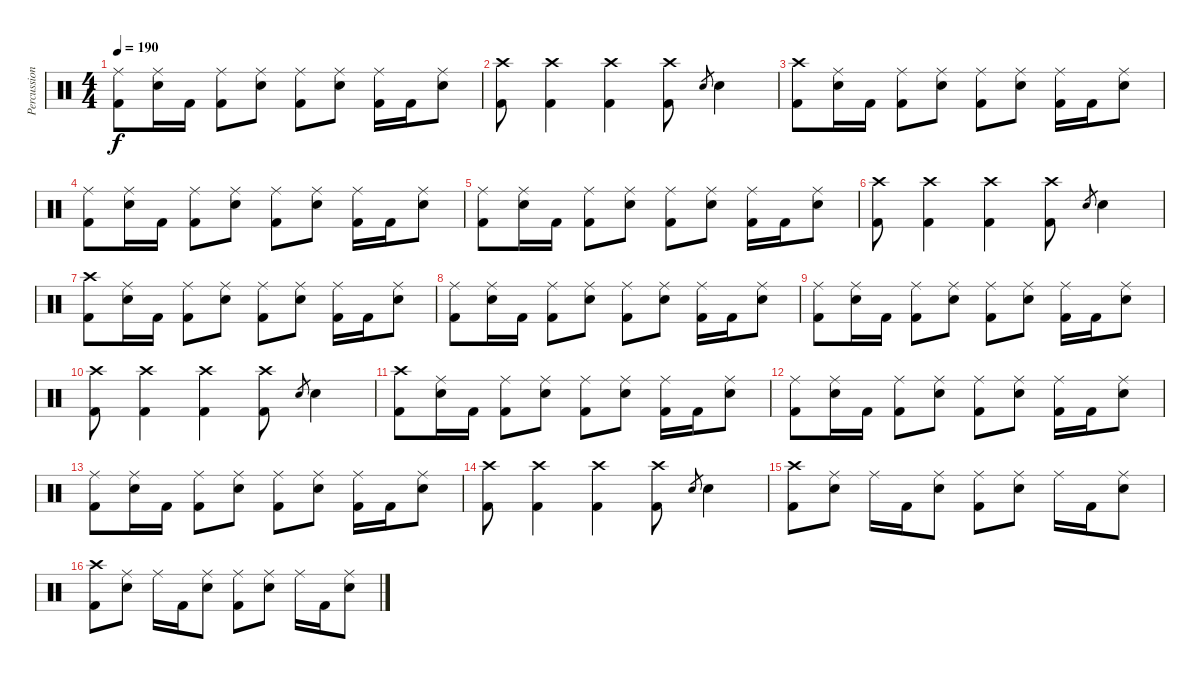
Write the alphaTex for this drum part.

\track ("Percussion" "Percussion") {instrument percussion}
\staff {score}
\articulation defaults
\ts (4 4)
\tempo 190
\clef neutral
\ks c
("Ride (middle)" "Kick (hit) 2").8{dy f} ("Ride (middle)" "Electric Snare (hit)").16 "Kick (hit) 2".16 ("Ride (middle)" "Kick (hit) 2").8 ("Ride (middle)" "Electric Snare (hit)").8 ("Ride (middle)" "Kick (hit) 2").8 ("Ride (middle)" "Electric Snare (hit)").8 ("Ride (middle)" "Kick (hit) 2").16 "Kick (hit) 2".16 ("Ride (middle)" "Electric Snare (hit)").8 |
("Crash high (hit)" "Kick (hit) 2").8 ("Crash high (hit)" "Kick (hit) 2").4 ("Crash high (hit)" "Kick (hit) 2").4 ("Crash high (hit)" "Kick (hit) 2").8 "Electric Snare (hit)".8{gr} "Electric Snare (hit)".4 |
("Crash high (hit)" "Kick (hit) 2").8 ("Ride (middle)" "Electric Snare (hit)").16 "Kick (hit) 2".16 ("Ride (middle)" "Kick (hit) 2").8 ("Ride (middle)" "Electric Snare (hit)").8 ("Ride (middle)" "Kick (hit) 2").8 ("Ride (middle)" "Electric Snare (hit)").8 ("Ride (middle)" "Kick (hit) 2").16 "Kick (hit) 2".16 ("Ride (middle)" "Electric Snare (hit)").8 |
("Ride (middle)" "Kick (hit) 2").8 ("Ride (middle)" "Electric Snare (hit)").16 "Kick (hit) 2".16 ("Ride (middle)" "Kick (hit) 2").8 ("Ride (middle)" "Electric Snare (hit)").8 ("Ride (middle)" "Kick (hit) 2").8 ("Ride (middle)" "Electric Snare (hit)").8 ("Ride (middle)" "Kick (hit) 2").16 "Kick (hit) 2".16 ("Ride (middle)" "Electric Snare (hit)").8 |
("Ride (middle)" "Kick (hit) 2").8 ("Ride (middle)" "Electric Snare (hit)").16 "Kick (hit) 2".16 ("Ride (middle)" "Kick (hit) 2").8 ("Ride (middle)" "Electric Snare (hit)").8 ("Ride (middle)" "Kick (hit) 2").8 ("Ride (middle)" "Electric Snare (hit)").8 ("Ride (middle)" "Kick (hit) 2").16 "Kick (hit) 2".16 ("Ride (middle)" "Electric Snare (hit)").8 |
("Crash high (hit)" "Kick (hit) 2").8 ("Crash high (hit)" "Kick (hit) 2").4 ("Crash high (hit)" "Kick (hit) 2").4 ("Crash high (hit)" "Kick (hit) 2").8 "Electric Snare (hit)".8{gr} "Electric Snare (hit)".4 |
("Crash high (hit)" "Kick (hit) 2").8 ("Ride (middle)" "Electric Snare (hit)").16 "Kick (hit) 2".16 ("Ride (middle)" "Kick (hit) 2").8 ("Ride (middle)" "Electric Snare (hit)").8 ("Ride (middle)" "Kick (hit) 2").8 ("Ride (middle)" "Electric Snare (hit)").8 ("Ride (middle)" "Kick (hit) 2").16 "Kick (hit) 2".16 ("Ride (middle)" "Electric Snare (hit)").8 |
("Ride (middle)" "Kick (hit) 2").8 ("Ride (middle)" "Electric Snare (hit)").16 "Kick (hit) 2".16 ("Ride (middle)" "Kick (hit) 2").8 ("Ride (middle)" "Electric Snare (hit)").8 ("Ride (middle)" "Kick (hit) 2").8 ("Ride (middle)" "Electric Snare (hit)").8 ("Ride (middle)" "Kick (hit) 2").16 "Kick (hit) 2".16 ("Ride (middle)" "Electric Snare (hit)").8 |
("Ride (middle)" "Kick (hit) 2").8 ("Ride (middle)" "Electric Snare (hit)").16 "Kick (hit) 2".16 ("Ride (middle)" "Kick (hit) 2").8 ("Ride (middle)" "Electric Snare (hit)").8 ("Ride (middle)" "Kick (hit) 2").8 ("Ride (middle)" "Electric Snare (hit)").8 ("Ride (middle)" "Kick (hit) 2").16 "Kick (hit) 2".16 ("Ride (middle)" "Electric Snare (hit)").8 |
("Crash high (hit)" "Kick (hit) 2").8 ("Crash high (hit)" "Kick (hit) 2").4 ("Crash high (hit)" "Kick (hit) 2").4 ("Crash high (hit)" "Kick (hit) 2").8 "Electric Snare (hit)".8{gr} "Electric Snare (hit)".4 |
("Crash high (hit)" "Kick (hit) 2").8 ("Ride (middle)" "Electric Snare (hit)").16 "Kick (hit) 2".16 ("Ride (middle)" "Kick (hit) 2").8 ("Ride (middle)" "Electric Snare (hit)").8 ("Ride (middle)" "Kick (hit) 2").8 ("Ride (middle)" "Electric Snare (hit)").8 ("Ride (middle)" "Kick (hit) 2").16 "Kick (hit) 2".16 ("Ride (middle)" "Electric Snare (hit)").8 |
("Ride (middle)" "Kick (hit) 2").8 ("Ride (middle)" "Electric Snare (hit)").16 "Kick (hit) 2".16 ("Ride (middle)" "Kick (hit) 2").8 ("Ride (middle)" "Electric Snare (hit)").8 ("Ride (middle)" "Kick (hit) 2").8 ("Ride (middle)" "Electric Snare (hit)").8 ("Ride (middle)" "Kick (hit) 2").16 "Kick (hit) 2".16 ("Ride (middle)" "Electric Snare (hit)").8 |
("Ride (middle)" "Kick (hit) 2").8 ("Ride (middle)" "Electric Snare (hit)").16 "Kick (hit) 2".16 ("Ride (middle)" "Kick (hit) 2").8 ("Ride (middle)" "Electric Snare (hit)").8 ("Ride (middle)" "Kick (hit) 2").8 ("Ride (middle)" "Electric Snare (hit)").8 ("Ride (middle)" "Kick (hit) 2").16 "Kick (hit) 2".16 ("Ride (middle)" "Electric Snare (hit)").8 |
("Crash high (hit)" "Kick (hit) 2").8 ("Crash high (hit)" "Kick (hit) 2").4 ("Crash high (hit)" "Kick (hit) 2").4 ("Crash high (hit)" "Kick (hit) 2").8 "Electric Snare (hit)".8{gr} "Electric Snare (hit)".4 |
("Crash high (hit)" "Kick (hit) 2").8 ("Ride (middle)" "Electric Snare (hit)").8 "Ride (middle)".16 "Kick (hit) 2".16 ("Ride (middle)" "Electric Snare (hit)").8 ("Ride (middle)" "Kick (hit) 2").8 ("Ride (middle)" "Electric Snare (hit)").8 "Ride (middle)".16 "Kick (hit) 2".16 ("Ride (middle)" "Electric Snare (hit)").8 |
("Crash high (hit)" "Kick (hit) 2").8 ("Ride (middle)" "Electric Snare (hit)").8 "Ride (middle)".16 "Kick (hit) 2".16 ("Ride (middle)" "Electric Snare (hit)").8 ("Ride (middle)" "Kick (hit) 2").8 ("Ride (middle)" "Electric Snare (hit)").8 "Ride (middle)".16 "Kick (hit) 2".16 ("Ride (middle)" "Electric Snare (hit)").8
